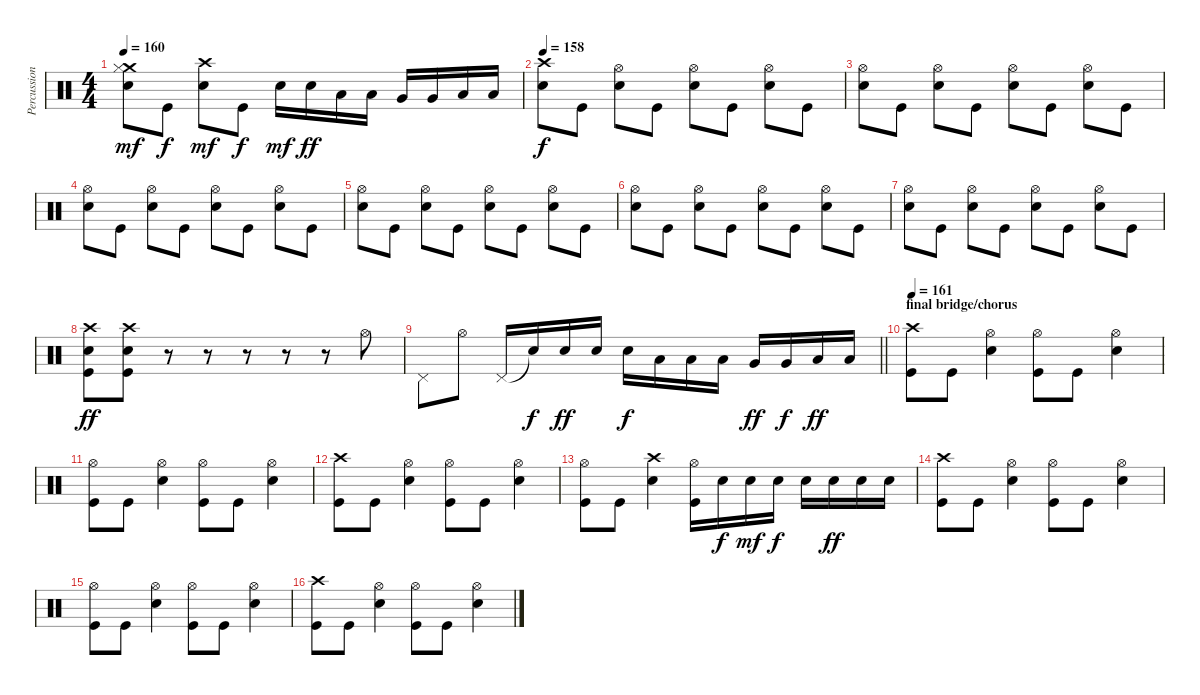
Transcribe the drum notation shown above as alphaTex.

\track ("Percussion" "Percussion") {instrument percussion}
\staff {score}
\articulation defaults
\ts (4 4)
\tempo 160
\clef neutral
\ks c
("Crash medium (hit)" "Hi-Hat (closed)" "Snare (hit) 2").8{dy mf} "Kick (hit)".8{dy f} ("Crash high (hit)" "Snare (hit) 2").8{dy mf} "Kick (hit)".8{dy f} "Snare (hit) 2".16{dy mf} "Snare (hit) 2".16{dy ff} "Low Tom (hit)".16 "Low Tom (hit)".16 "Very Low Tom (hit)".16 "Very Low Tom (hit)".16 "Low Floor Tom (hit)".16 "Low Floor Tom (hit)".16 |
\tempo 158
("Crash high (hit)" "Snare (hit) 2").8{dy f} "Kick (hit)".8 ("Hi-Hat (open)" "Snare (hit) 2").8 "Kick (hit)".8 ("Hi-Hat (open)" "Snare (hit) 2").8 "Kick (hit)".8 ("Hi-Hat (open)" "Snare (hit) 2").8 "Kick (hit)".8 |
("Hi-Hat (open)" "Snare (hit) 2").8 "Kick (hit)".8 ("Hi-Hat (open)" "Snare (hit) 2").8 "Kick (hit)".8 ("Hi-Hat (open)" "Snare (hit) 2").8 "Kick (hit)".8 ("Hi-Hat (open)" "Snare (hit) 2").8 "Kick (hit)".8 |
("Hi-Hat (open)" "Snare (hit) 2").8 "Kick (hit)".8 ("Hi-Hat (open)" "Snare (hit) 2").8 "Kick (hit)".8 ("Hi-Hat (open)" "Snare (hit) 2").8 "Kick (hit)".8 ("Hi-Hat (open)" "Snare (hit) 2").8 "Kick (hit)".8 |
("Hi-Hat (open)" "Snare (hit) 2").8 "Kick (hit)".8 ("Hi-Hat (open)" "Snare (hit) 2").8 "Kick (hit)".8 ("Hi-Hat (open)" "Snare (hit) 2").8 "Kick (hit)".8 ("Hi-Hat (open)" "Snare (hit) 2").8 "Kick (hit)".8 |
("Hi-Hat (open)" "Snare (hit) 2").8 "Kick (hit)".8 ("Hi-Hat (open)" "Snare (hit) 2").8 "Kick (hit)".8 ("Hi-Hat (open)" "Snare (hit) 2").8 "Kick (hit)".8 ("Hi-Hat (open)" "Snare (hit) 2").8 "Kick (hit)".8 |
("Hi-Hat (open)" "Snare (hit) 2").8 "Kick (hit)".8 ("Hi-Hat (open)" "Snare (hit) 2").8 "Kick (hit)".8 ("Hi-Hat (open)" "Snare (hit) 2").8 "Kick (hit)".8 ("Hi-Hat (open)" "Snare (hit) 2").8 "Kick (hit)".8 |
("Crash high (hit)" "Snare (hit) 2" "Kick (hit)").8{dy ff} ("Crash high (hit)" "Snare (hit) 2" "Kick (hit)").8 r.8 r.8 r.8 r.8 r.8 "Hi-Hat (open)".8 |
\barLineRight lightlight "Pedal Hi-Hat (hit)".8 "Hi-Hat (open)".8 "Pedal Hi-Hat (hit)".16 "Snare (hit)"{t}.16{dy f} "Snare (hit) 2".16{dy ff} "Snare (hit) 2".16 "Snare (hit) 2".16{dy f} "Low Tom (hit)".16 "Low Tom (hit)".16 "Low Tom (hit)".16 "Very Low Tom (hit)".16{dy ff} "Very Low Tom (hit)".16{dy f} "Low Floor Tom (hit)".16{dy ff} "Low Floor Tom (hit)".16
|
\section ("" "final bridge/chorus")
\tempo 161
("Crash high (hit)" "Kick (hit)").8 "Kick (hit)".8 ("Hi-Hat (open)" "Snare (hit) 2").4 ("Hi-Hat (open)" "Kick (hit)").8 "Kick (hit)".8 ("Hi-Hat (open)" "Snare (hit) 2").4 |
("Hi-Hat (open)" "Kick (hit)").8 "Kick (hit)".8 ("Hi-Hat (open)" "Snare (hit) 2").4 ("Hi-Hat (open)" "Kick (hit)").8 "Kick (hit)".8 ("Hi-Hat (open)" "Snare (hit) 2").4 |
("Crash high (hit)" "Kick (hit)").8 "Kick (hit)".8 ("Hi-Hat (open)" "Snare (hit) 2").4 ("Hi-Hat (open)" "Kick (hit)").8 "Kick (hit)".8 ("Hi-Hat (open)" "Snare (hit) 2").4 |
("Hi-Hat (open)" "Kick (hit)").8 "Kick (hit)".8 ("Crash high (hit)" "Snare (hit) 2").4 ("Hi-Hat (open)" "Kick (hit)").16 "Snare (hit) 2".16{dy f} "Snare (hit) 2".16{dy mf} "Snare (hit) 2".16{dy f} "Snare (hit) 2".16 "Snare (hit) 2".16{dy ff} "Snare (hit) 2".16 "Snare (hit) 2".16 |
("Crash high (hit)" "Kick (hit)").8 "Kick (hit)".8 ("Hi-Hat (open)" "Snare (hit) 2").4 ("Hi-Hat (open)" "Kick (hit)").8 "Kick (hit)".8 ("Hi-Hat (open)" "Snare (hit) 2").4 |
("Hi-Hat (open)" "Kick (hit)").8 "Kick (hit)".8 ("Hi-Hat (open)" "Snare (hit) 2").4 ("Hi-Hat (open)" "Kick (hit)").8 "Kick (hit)".8 ("Hi-Hat (open)" "Snare (hit) 2").4 |
("Crash high (hit)" "Kick (hit)").8 "Kick (hit)".8 ("Hi-Hat (open)" "Snare (hit) 2").4 ("Hi-Hat (open)" "Kick (hit)").8 "Kick (hit)".8 ("Hi-Hat (open)" "Snare (hit) 2").4
